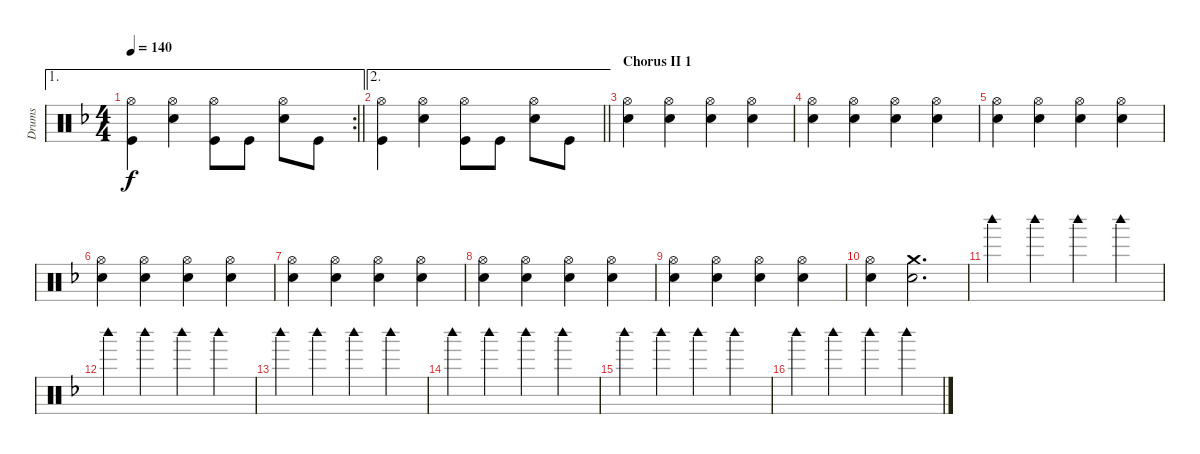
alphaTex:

\track ("Drums" "Drums") {instrument percussion}
\staff {score}
\articulation defaults
\ae 1
\rc 2
\ts (4 4)
\tempo 140
\clef neutral
\barLineRight lightlight
\ks f
("Hi-Hat (open)" "Kick (hit)").4{dy f} ("Hi-Hat (open)" "Snare (hit) 2").4 ("Hi-Hat (open)" "Kick (hit)").8 "Kick (hit)".8 ("Hi-Hat (open)" "Snare (hit) 2").8 "Kick (hit)".8 |
\ae 2
\barLineRight lightlight
("Hi-Hat (open)" "Kick (hit)").4 ("Hi-Hat (open)" "Snare (hit) 2").4 ("Hi-Hat (open)" "Kick (hit)").8 "Kick (hit)".8 ("Hi-Hat (open)" "Snare (hit) 2").8 "Kick (hit)".8 |
\section ("" "Chorus II 1")
("Hi-Hat (open)" "Snare (hit) 2").4 ("Hi-Hat (open)" "Snare (hit) 2").4 ("Hi-Hat (open)" "Snare (hit) 2").4 ("Hi-Hat (open)" "Snare (hit) 2").4 |
("Hi-Hat (open)" "Snare (hit) 2").4 ("Hi-Hat (open)" "Snare (hit) 2").4 ("Hi-Hat (open)" "Snare (hit) 2").4 ("Hi-Hat (open)" "Snare (hit) 2").4 |
("Hi-Hat (open)" "Snare (hit) 2").4 ("Hi-Hat (open)" "Snare (hit) 2").4 ("Hi-Hat (open)" "Snare (hit) 2").4 ("Hi-Hat (open)" "Snare (hit) 2").4 |
("Hi-Hat (open)" "Snare (hit) 2").4 ("Hi-Hat (open)" "Snare (hit) 2").4 ("Hi-Hat (open)" "Snare (hit) 2").4 ("Hi-Hat (open)" "Snare (hit) 2").4 |
("Hi-Hat (open)" "Snare (hit) 2").4 ("Hi-Hat (open)" "Snare (hit) 2").4 ("Hi-Hat (open)" "Snare (hit) 2").4 ("Hi-Hat (open)" "Snare (hit) 2").4 |
("Hi-Hat (open)" "Snare (hit) 2").4 ("Hi-Hat (open)" "Snare (hit) 2").4 ("Hi-Hat (open)" "Snare (hit) 2").4 ("Hi-Hat (open)" "Snare (hit) 2").4 |
("Hi-Hat (open)" "Snare (hit) 2").4 ("Hi-Hat (open)" "Snare (hit) 2").4 ("Hi-Hat (open)" "Snare (hit) 2").4 ("Hi-Hat (open)" "Snare (hit) 2").4 |
("Hi-Hat (open)" "Snare (hit) 2").4 ("Crash medium (hit)" "Snare (hit) 2").2{d} |
"Woodblock high (hit)".4 "Woodblock high (hit)".4 "Woodblock high (hit)".4 "Woodblock high (hit)".4 |
"Woodblock high (hit)".4 "Woodblock high (hit)".4 "Woodblock high (hit)".4 "Woodblock high (hit)".4 |
"Woodblock high (hit)".4 "Woodblock high (hit)".4 "Woodblock high (hit)".4 "Woodblock high (hit)".4 |
"Woodblock high (hit)".4 "Woodblock high (hit)".4 "Woodblock high (hit)".4 "Woodblock high (hit)".4 |
"Woodblock high (hit)".4 "Woodblock high (hit)".4 "Woodblock high (hit)".4 "Woodblock high (hit)".4 |
"Woodblock high (hit)".4 "Woodblock high (hit)".4 "Woodblock high (hit)".4 "Woodblock high (hit)".4
